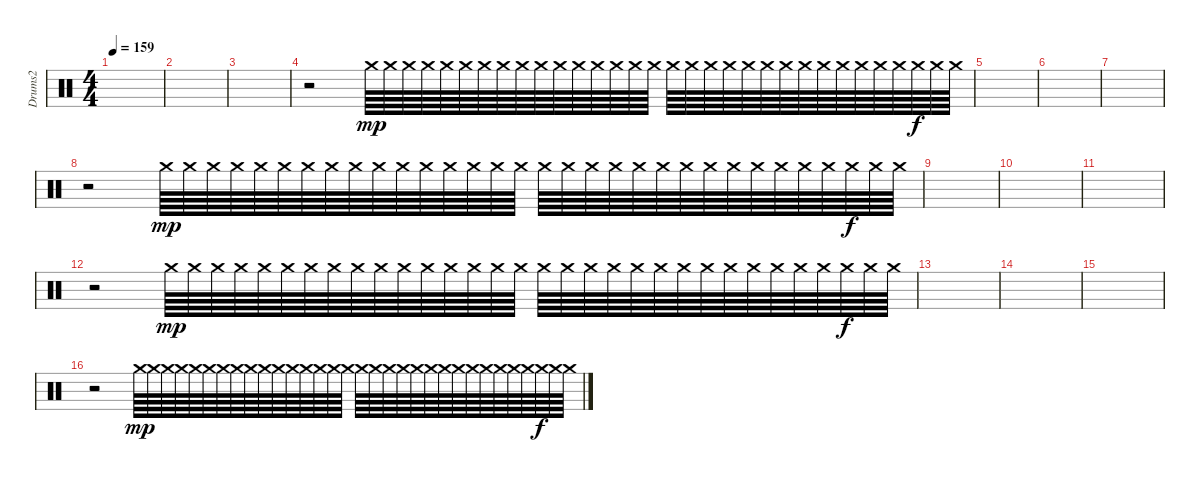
\track ("Drums2" "Drums2") {instrument percussion}
\staff {score}
\articulation defaults
\ts (4 4)
\tempo 159
\clef neutral
\ks c
|
|
|
r.2 "Crash medium (hit)".64{dy mp} "Crash medium (hit)".64 "Crash medium (hit)".64 "Crash medium (hit)".64 "Crash medium (hit)".64 "Crash medium (hit)".64 "Crash medium (hit)".64 "Crash medium (hit)".64 "Crash medium (hit)".64 "Crash medium (hit)".64 "Crash medium (hit)".64 "Crash medium (hit)".64 "Crash medium (hit)".64 "Crash medium (hit)".64 "Crash medium (hit)".64 "Crash medium (hit)".64 "Crash medium (hit)".64 "Crash medium (hit)".64 "Crash medium (hit)".64 "Crash medium (hit)".64 "Crash medium (hit)".64 "Crash medium (hit)".64 "Crash medium (hit)".64 "Crash medium (hit)".64 "Crash medium (hit)".64 "Crash medium (hit)".64 "Crash medium (hit)".64 "Crash medium (hit)".64 "Crash medium (hit)".64 "Crash medium (hit)"{x}.64{dy f} "Crash medium (hit)"{x}.64 "Crash medium (hit)"{x}.64 |
|
|
|
r.2 "Crash medium (hit)".64{dy mp} "Crash medium (hit)".64 "Crash medium (hit)".64 "Crash medium (hit)".64 "Crash medium (hit)".64 "Crash medium (hit)".64 "Crash medium (hit)".64 "Crash medium (hit)".64 "Crash medium (hit)".64 "Crash medium (hit)".64 "Crash medium (hit)".64 "Crash medium (hit)".64 "Crash medium (hit)".64 "Crash medium (hit)".64 "Crash medium (hit)".64 "Crash medium (hit)".64 "Crash medium (hit)".64 "Crash medium (hit)".64 "Crash medium (hit)".64 "Crash medium (hit)".64 "Crash medium (hit)".64 "Crash medium (hit)".64 "Crash medium (hit)".64 "Crash medium (hit)".64 "Crash medium (hit)".64 "Crash medium (hit)".64 "Crash medium (hit)".64 "Crash medium (hit)".64 "Crash medium (hit)".64 "Crash medium (hit)"{x}.64{dy f} "Crash medium (hit)"{x}.64 "Crash medium (hit)"{x}.64 |
|
|
|
r.2 "Crash medium (hit)".64{dy mp} "Crash medium (hit)".64 "Crash medium (hit)".64 "Crash medium (hit)".64 "Crash medium (hit)".64 "Crash medium (hit)".64 "Crash medium (hit)".64 "Crash medium (hit)".64 "Crash medium (hit)".64 "Crash medium (hit)".64 "Crash medium (hit)".64 "Crash medium (hit)".64 "Crash medium (hit)".64 "Crash medium (hit)".64 "Crash medium (hit)".64 "Crash medium (hit)".64 "Crash medium (hit)".64 "Crash medium (hit)".64 "Crash medium (hit)".64 "Crash medium (hit)".64 "Crash medium (hit)".64 "Crash medium (hit)".64 "Crash medium (hit)".64 "Crash medium (hit)".64 "Crash medium (hit)".64 "Crash medium (hit)".64 "Crash medium (hit)".64 "Crash medium (hit)".64 "Crash medium (hit)".64 "Crash medium (hit)"{x}.64{dy f} "Crash medium (hit)"{x}.64 "Crash medium (hit)"{x}.64 |
|
|
|
r.2 "Crash medium (hit)".64{dy mp} "Crash medium (hit)".64 "Crash medium (hit)".64 "Crash medium (hit)".64 "Crash medium (hit)".64 "Crash medium (hit)".64 "Crash medium (hit)".64 "Crash medium (hit)".64 "Crash medium (hit)".64 "Crash medium (hit)".64 "Crash medium (hit)".64 "Crash medium (hit)".64 "Crash medium (hit)".64 "Crash medium (hit)".64 "Crash medium (hit)".64 "Crash medium (hit)".64 "Crash medium (hit)".64 "Crash medium (hit)".64 "Crash medium (hit)".64 "Crash medium (hit)".64 "Crash medium (hit)".64 "Crash medium (hit)".64 "Crash medium (hit)".64 "Crash medium (hit)".64 "Crash medium (hit)".64 "Crash medium (hit)".64 "Crash medium (hit)".64 "Crash medium (hit)".64 "Crash medium (hit)".64 "Crash medium (hit)"{x}.64{dy f} "Crash medium (hit)"{x}.64 "Crash medium (hit)"{x}.64
